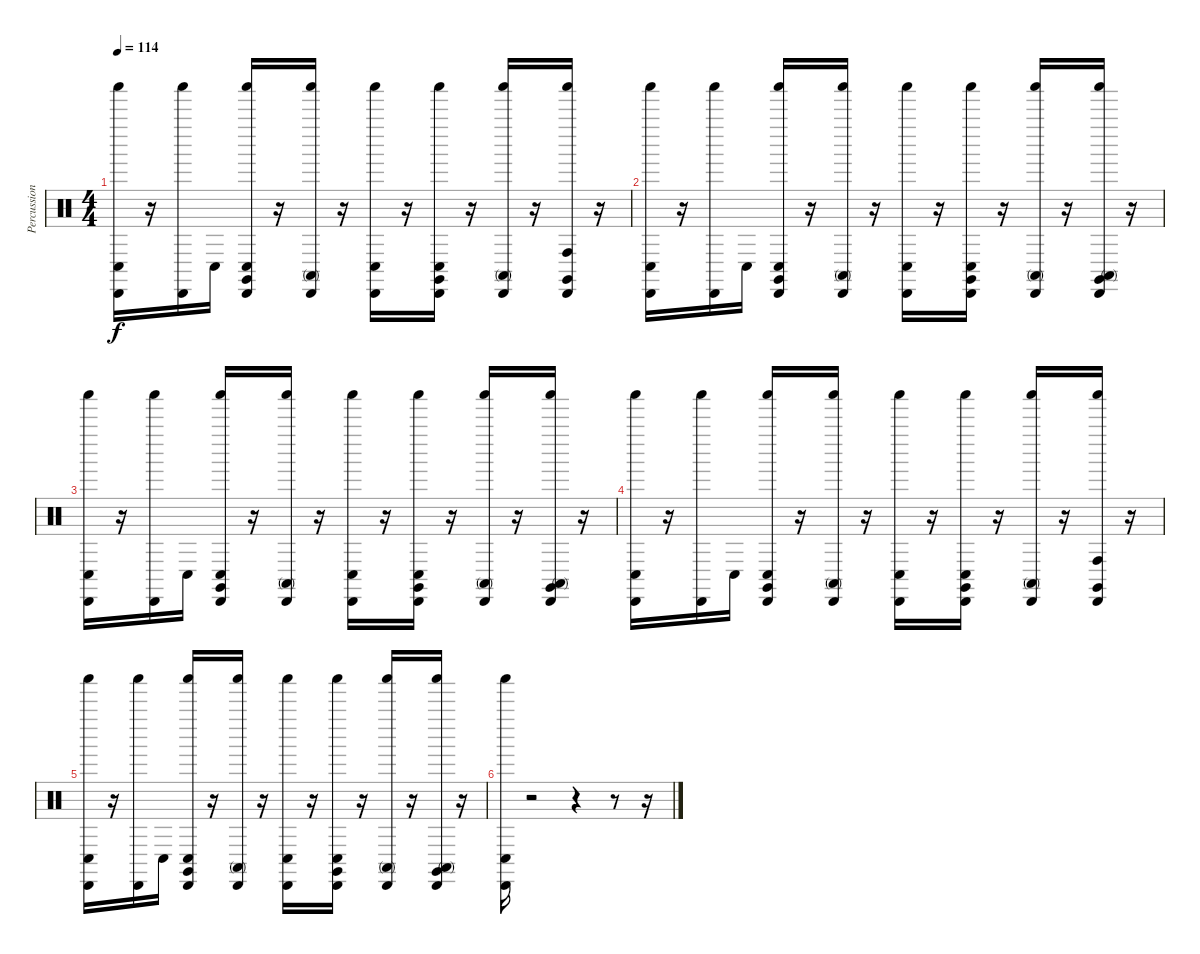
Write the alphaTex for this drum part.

\track ("Percussion (Std Set)" "Percussion") {instrument percussion}
\staff {score}
\articulation defaults
\ts (4 4)
\tempo 114
\clef neutral
\ks c
("Cabasa (hit)" "Conga low (hit)" "Shaker (hit)").16{dy f} r.16 ("Shaker (hit)" "Cabasa (hit)").16 "Conga low (hit)".16 ("Conga low (hit)" "Shaker (hit)" "Claves (hit)" "Cabasa (hit)").16 r.16 ("Conga high (mute)" "Shaker (hit)" "Cabasa (hit)").16 r.16 ("Shaker (hit)" "Conga low (hit)" "Cabasa (hit)").16 r.16 ("Shaker (hit)" "Conga low (hit)" "Cabasa (hit)" "Claves (hit)").16 r.16 ("Cabasa (hit)" "Conga high (mute)" "Shaker (hit)").16 r.16 ("Claves (hit)" "Conga high (hit)" "Cabasa (hit)" "Shaker (hit)").16 r.16 |
("Shaker (hit)" "Cabasa (hit)" "Conga low (hit)").16 r.16 ("Shaker (hit)" "Cabasa (hit)").16 "Conga low (hit)".16 ("Claves (hit)" "Conga low (hit)" "Cabasa (hit)" "Shaker (hit)").16 r.16 ("Shaker (hit)" "Conga high (mute)" "Cabasa (hit)").16 r.16 ("Shaker (hit)" "Cabasa (hit)" "Conga low (hit)").16 r.16 ("Claves (hit)" "Conga low (hit)" "Cabasa (hit)" "Shaker (hit)").16 r.16 ("Cabasa (hit)" "Shaker (hit)" "Conga high (mute)").16 r.16 ("Cabasa (hit)" "Conga high (mute)" "Shaker (hit)" "Claves (hit)").16 r.16 |
("Conga low (hit)" "Cabasa (hit)" "Shaker (hit)").16 r.16 ("Shaker (hit)" "Cabasa (hit)").16 "Conga low (hit)".16 ("Cabasa (hit)" "Shaker (hit)" "Claves (hit)" "Conga low (hit)").16 r.16 ("Shaker (hit)" "Cabasa (hit)" "Conga high (mute)").16 r.16 ("Cabasa (hit)" "Conga low (hit)" "Shaker (hit)").16 r.16 ("Cabasa (hit)" "Conga low (hit)" "Shaker (hit)" "Claves (hit)").16 r.16 ("Conga high (mute)" "Cabasa (hit)" "Shaker (hit)").16 r.16 ("Shaker (hit)" "Conga high (mute)" "Claves (hit)" "Cabasa (hit)").16 r.16 |
("Shaker (hit)" "Conga low (hit)" "Cabasa (hit)").16 r.16 ("Cabasa (hit)" "Shaker (hit)").16 "Conga low (hit)".16 ("Conga low (hit)" "Claves (hit)" "Cabasa (hit)" "Shaker (hit)").16 r.16 ("Cabasa (hit)" "Conga high (mute)" "Shaker (hit)").16 r.16 ("Shaker (hit)" "Cabasa (hit)" "Conga low (hit)").16 r.16 ("Conga low (hit)" "Shaker (hit)" "Claves (hit)" "Cabasa (hit)").16 r.16 ("Cabasa (hit)" "Shaker (hit)" "Conga high (mute)").16 r.16 ("Shaker (hit)" "Claves (hit)" "Conga high (hit)" "Cabasa (hit)").16 r.16 |
("Shaker (hit)" "Cabasa (hit)" "Conga low (hit)").16 r.16 ("Cabasa (hit)" "Shaker (hit)").16 "Conga low (hit)".16 ("Cabasa (hit)" "Conga low (hit)" "Claves (hit)" "Shaker (hit)").16 r.16 ("Shaker (hit)" "Cabasa (hit)" "Conga high (mute)").16 r.16 ("Conga low (hit)" "Cabasa (hit)" "Shaker (hit)").16 r.16 ("Conga low (hit)" "Claves (hit)" "Cabasa (hit)" "Shaker (hit)").16 r.16 ("Shaker (hit)" "Conga high (mute)" "Cabasa (hit)").16 r.16 ("Shaker (hit)" "Claves (hit)" "Cabasa (hit)" "Conga high (mute)").16 r.16 |
("Conga low (hit)" "Cabasa (hit)" "Shaker (hit)").16 r.2 r.4 r.8 r.16
